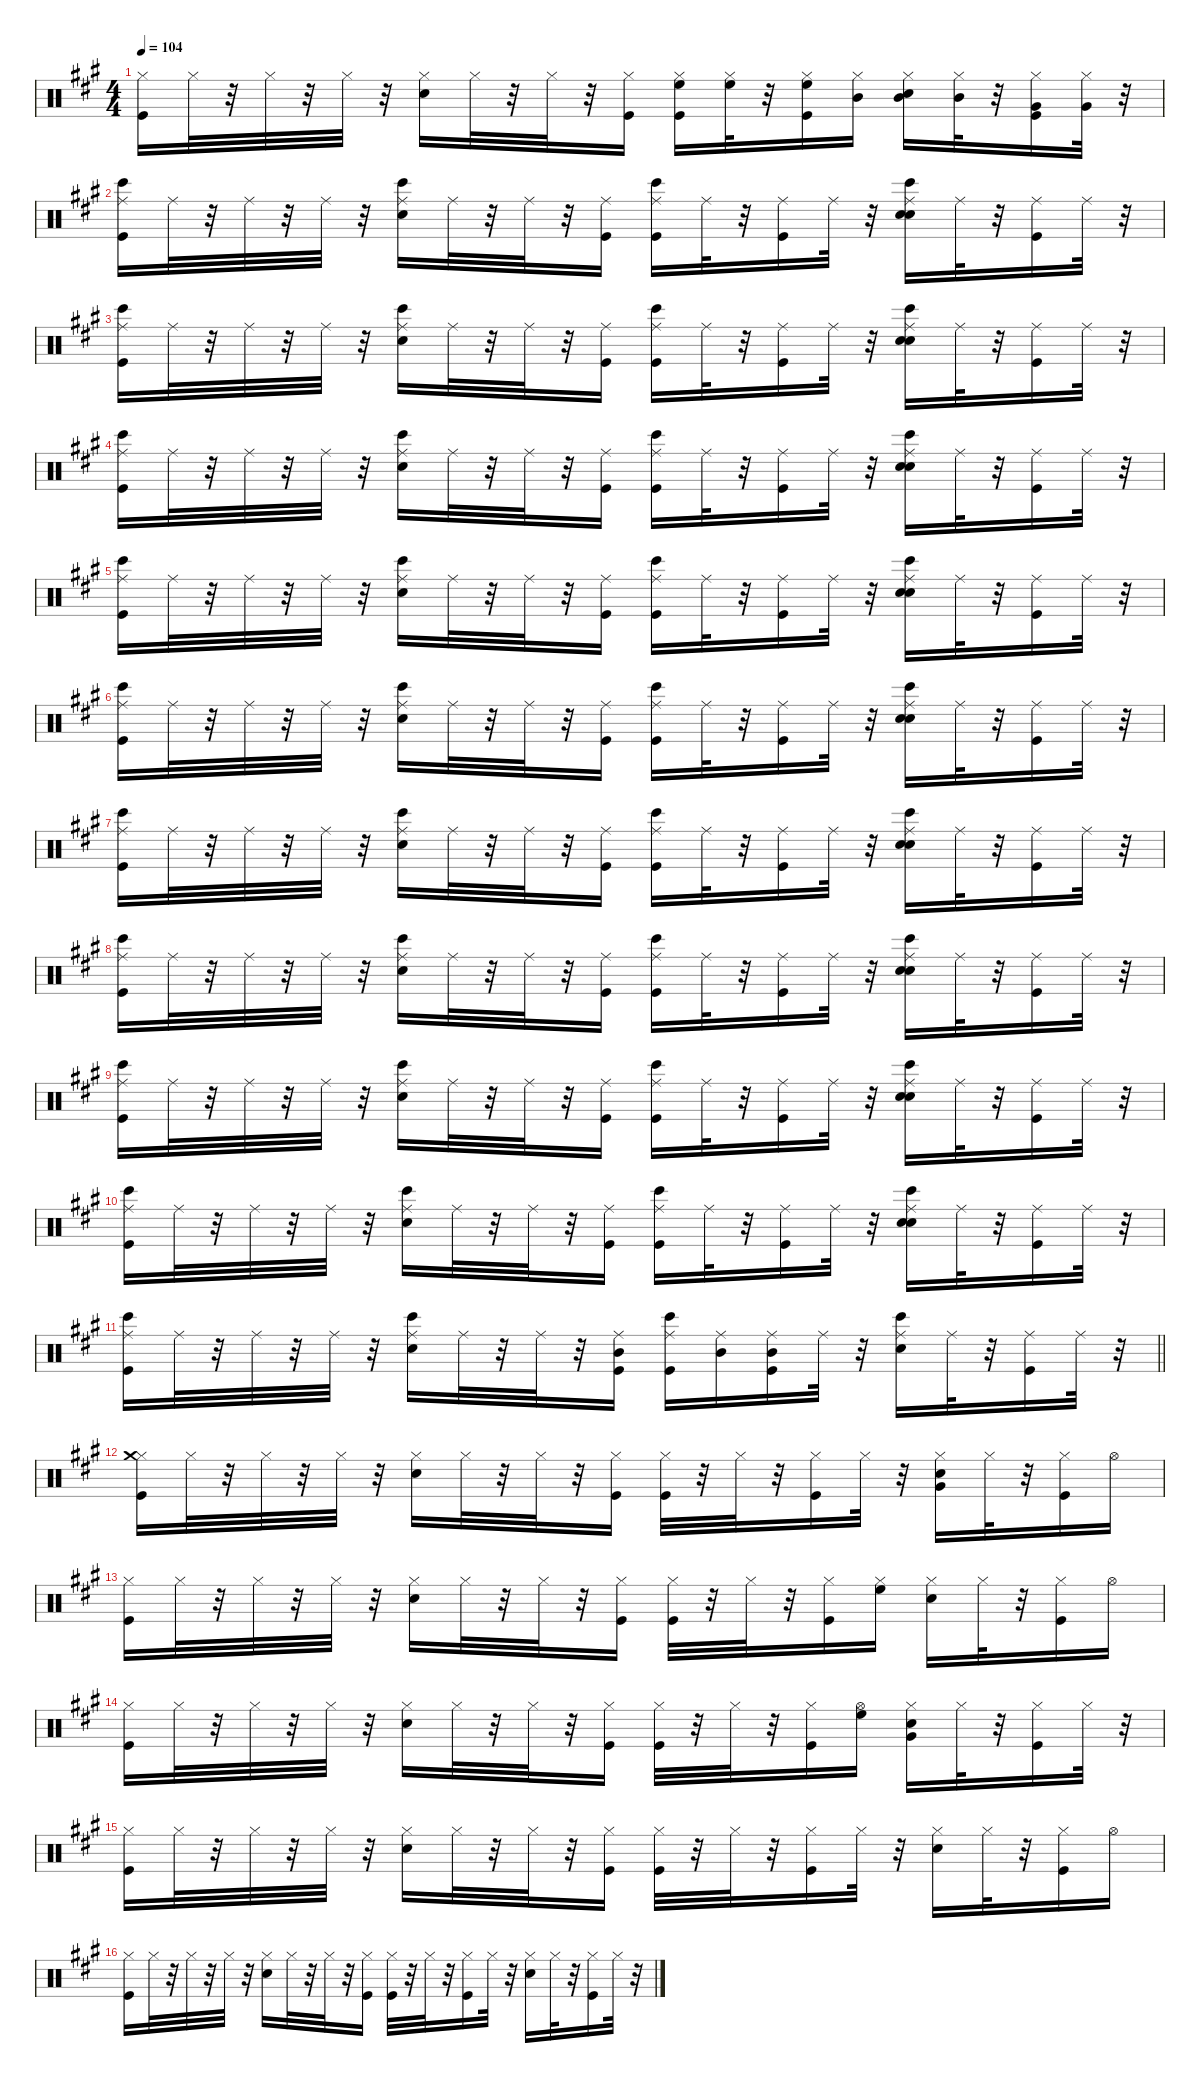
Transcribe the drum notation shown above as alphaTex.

\defaultSystemsLayout 4
\hideDynamics
\bracketExtendMode nobrackets
\singleTrackTrackNamePolicy hidden
\multiTrackTrackNamePolicy hidden
\otherSystemsTrackNameOrientation horizontal
\track ("Drums   " "drm.") {instrument percussion}
\staff {score}
\articulation defaults
\ts (4 4)
\tempo 104
\clef neutral
\ks a
("Kick (hit)"{acc forcenatural} "Hi-Hat (closed)"{acc forcenatural}).16{dy f beam Down} "Hi-Hat (closed)"{acc forcenatural}.32{dy mp beam Down} r.32{beam Down} "Hi-Hat (closed)"{acc forcenatural}.32{dy f beam Down} r.32{beam Down} "Hi-Hat (closed)"{acc forcenatural}.32{beam Down} r.32{beam Down} ("Snare (hit) 2"{acc forcenatural} "Hi-Hat (closed)"{acc forcenatural}).16{dy fff beam Down} "Hi-Hat (closed)"{acc forcenatural}.32{dy mp beam Down} r.32{beam Down} "Hi-Hat (closed)"{acc forcenatural}.32{dy f beam Down} r.32{beam Down} ("Kick (hit)"{acc forcenatural} "Hi-Hat (closed)"{acc forcenatural}).16{dy mf beam Down} ("Kick (hit)"{acc forcenatural} "Hi-Hat (closed)"{acc forcenatural} "High Floor Tom (hit)"{acc forcenatural}).16{dy f beam Down} ("Hi-Hat (closed)"{acc forcenatural} "High Floor Tom (hit)"{acc forcenatural}).32{dy mp beam Down} r.32{beam Down} ("Kick (hit)"{acc forcenatural} "Hi-Hat (closed)"{acc forcenatural} "High Floor Tom (hit)"{acc forcenatural}).16{dy f beam Down} ("Hi-Hat (closed)"{acc forcenatural} "Mid Tom (hit)"{acc forcenatural}).16{beam Down} ("Snare (hit) 2"{acc forcenatural} "Hi-Hat (closed)"{acc forcenatural} "Mid Tom (hit)"{acc forcenatural}).16{dy fff beam Down} ("Hi-Hat (closed)"{acc forcenatural} "Mid Tom (hit)"{acc forcenatural}).32{dy mp beam Down} r.32{beam Down} ("Kick (hit)"{acc forcenatural} "Hi-Hat (closed)"{acc forcenatural} "Very Low Tom (hit)"{acc forcenatural}).16{dy f beam Down} ("Hi-Hat (closed)"{acc forcenatural} "Very Low Tom (hit)"{acc forcenatural}).32{beam Down} r.32{beam Down} |
("Kick (hit)"{acc forcenatural} "Ride (middle)"{acc forcenatural} "Bongo High (hit)"{acc forcenatural}).16{beam Down} "Ride (middle)"{acc forcenatural}.32{dy mp beam Down} r.32{beam Down} "Ride (middle)"{acc forcenatural}.32{beam Down} r.32{beam Down} "Ride (middle)"{acc forcenatural}.32{beam Down} r.32{beam Down} ("Snare (hit) 2"{acc forcenatural} "Ride (middle)"{acc forcenatural} "Bongo High (hit)"{acc forcenatural}).16{dy fff beam Down} "Ride (middle)"{acc forcenatural}.32{dy mp beam Down} r.32{beam Down} "Ride (middle)"{acc forcenatural}.32{beam Down} r.32{beam Down} ("Kick (hit)"{acc forcenatural} "Ride (middle)"{acc forcenatural}).16{dy mf beam Down} ("Kick (hit)"{acc forcenatural} "Ride (middle)"{acc forcenatural} "Bongo High (hit)"{acc forcenatural}).16{dy f beam Down} "Ride (middle)"{acc forcenatural}.32{dy mp beam Down} r.32{beam Down} ("Kick (hit)"{acc forcenatural} "Ride (middle)"{acc forcenatural}).16{dy f beam Down} "Ride (middle)"{acc forcenatural}.32{dy mp beam Down} r.32{beam Down} ("Hand Clap (hit)"{acc forcenatural} "Snare (hit) 2"{acc forcenatural} "Ride (middle)"{acc forcenatural} "Bongo High (hit)"{acc forcenatural}).16{dy f beam Down} "Ride (middle)"{acc forcenatural}.32{dy mp beam Down} r.32{beam Down} ("Kick (hit)"{acc forcenatural} "Ride (middle)"{acc forcenatural}).16{dy f beam Down} "Ride (middle)"{acc forcenatural}.32{dy mp beam Down} r.32{beam Down} |
("Kick (hit)"{acc forcenatural} "Ride (middle)"{acc forcenatural} "Bongo High (hit)"{acc forcenatural}).16{dy f beam Down} "Ride (middle)"{acc forcenatural}.32{dy mp beam Down} r.32{beam Down} "Ride (middle)"{acc forcenatural}.32{beam Down} r.32{beam Down} "Ride (middle)"{acc forcenatural}.32{beam Down} r.32{beam Down} ("Snare (hit) 2"{acc forcenatural} "Ride (middle)"{acc forcenatural} "Bongo High (hit)"{acc forcenatural}).16{dy fff beam Down} "Ride (middle)"{acc forcenatural}.32{dy mp beam Down} r.32{beam Down} "Ride (middle)"{acc forcenatural}.32{beam Down} r.32{beam Down} ("Kick (hit)"{acc forcenatural} "Ride (middle)"{acc forcenatural}).16{dy mf beam Down} ("Kick (hit)"{acc forcenatural} "Ride (middle)"{acc forcenatural} "Bongo High (hit)"{acc forcenatural}).16{dy f beam Down} "Ride (middle)"{acc forcenatural}.32{dy mp beam Down} r.32{beam Down} ("Kick (hit)"{acc forcenatural} "Ride (middle)"{acc forcenatural}).16{dy f beam Down} "Ride (middle)"{acc forcenatural}.32{dy mp beam Down} r.32{beam Down} ("Hand Clap (hit)"{acc forcenatural} "Snare (hit) 2"{acc forcenatural} "Ride (middle)"{acc forcenatural} "Bongo High (hit)"{acc forcenatural}).16{dy f beam Down} "Ride (middle)"{acc forcenatural}.32{dy mp beam Down} r.32{beam Down} ("Kick (hit)"{acc forcenatural} "Ride (middle)"{acc forcenatural}).16{dy f beam Down} "Ride (middle)"{acc forcenatural}.32{dy mp beam Down} r.32{beam Down} |
("Kick (hit)"{acc forcenatural} "Ride (middle)"{acc forcenatural} "Bongo High (hit)"{acc forcenatural}).16{dy f beam Down} "Ride (middle)"{acc forcenatural}.32{dy mp beam Down} r.32{beam Down} "Ride (middle)"{acc forcenatural}.32{beam Down} r.32{beam Down} "Ride (middle)"{acc forcenatural}.32{beam Down} r.32{beam Down} ("Snare (hit) 2"{acc forcenatural} "Ride (middle)"{acc forcenatural} "Bongo High (hit)"{acc forcenatural}).16{dy fff beam Down} "Ride (middle)"{acc forcenatural}.32{dy mp beam Down} r.32{beam Down} "Ride (middle)"{acc forcenatural}.32{beam Down} r.32{beam Down} ("Kick (hit)"{acc forcenatural} "Ride (middle)"{acc forcenatural}).16{dy mf beam Down} ("Kick (hit)"{acc forcenatural} "Ride (middle)"{acc forcenatural} "Bongo High (hit)"{acc forcenatural}).16{dy f beam Down} "Ride (middle)"{acc forcenatural}.32{dy mp beam Down} r.32{beam Down} ("Kick (hit)"{acc forcenatural} "Ride (middle)"{acc forcenatural}).16{dy f beam Down} "Ride (middle)"{acc forcenatural}.32{dy mp beam Down} r.32{beam Down} ("Hand Clap (hit)"{acc forcenatural} "Snare (hit) 2"{acc forcenatural} "Ride (middle)"{acc forcenatural} "Bongo High (hit)"{acc forcenatural}).16{dy f beam Down} "Ride (middle)"{acc forcenatural}.32{dy mp beam Down} r.32{beam Down} ("Kick (hit)"{acc forcenatural} "Ride (middle)"{acc forcenatural}).16{dy f beam Down} "Ride (middle)"{acc forcenatural}.32{dy mp beam Down} r.32{beam Down} |
("Kick (hit)"{acc forcenatural} "Ride (middle)"{acc forcenatural} "Bongo High (hit)"{acc forcenatural}).16{dy f beam Down} "Ride (middle)"{acc forcenatural}.32{dy mp beam Down} r.32{beam Down} "Ride (middle)"{acc forcenatural}.32{beam Down} r.32{beam Down} "Ride (middle)"{acc forcenatural}.32{beam Down} r.32{beam Down} ("Snare (hit) 2"{acc forcenatural} "Ride (middle)"{acc forcenatural} "Bongo High (hit)"{acc forcenatural}).16{dy fff beam Down} "Ride (middle)"{acc forcenatural}.32{dy mp beam Down} r.32{beam Down} "Ride (middle)"{acc forcenatural}.32{beam Down} r.32{beam Down} ("Kick (hit)"{acc forcenatural} "Ride (middle)"{acc forcenatural}).16{dy mf beam Down} ("Kick (hit)"{acc forcenatural} "Ride (middle)"{acc forcenatural} "Bongo High (hit)"{acc forcenatural}).16{dy f beam Down} "Ride (middle)"{acc forcenatural}.32{dy mp beam Down} r.32{beam Down} ("Kick (hit)"{acc forcenatural} "Ride (middle)"{acc forcenatural}).16{dy f beam Down} "Ride (middle)"{acc forcenatural}.32{dy mp beam Down} r.32{beam Down} ("Hand Clap (hit)"{acc forcenatural} "Snare (hit) 2"{acc forcenatural} "Ride (middle)"{acc forcenatural} "Bongo High (hit)"{acc forcenatural}).16{dy f beam Down} "Ride (middle)"{acc forcenatural}.32{dy mp beam Down} r.32{beam Down} ("Kick (hit)"{acc forcenatural} "Ride (middle)"{acc forcenatural}).16{dy f beam Down} "Ride (middle)"{acc forcenatural}.32{dy mp beam Down} r.32{beam Down} |
("Kick (hit)"{acc forcenatural} "Ride (middle)"{acc forcenatural} "Bongo High (hit)"{acc forcenatural}).16{dy f beam Down} "Ride (middle)"{acc forcenatural}.32{dy mp beam Down} r.32{beam Down} "Ride (middle)"{acc forcenatural}.32{beam Down} r.32{beam Down} "Ride (middle)"{acc forcenatural}.32{beam Down} r.32{beam Down} ("Snare (hit) 2"{acc forcenatural} "Ride (middle)"{acc forcenatural} "Bongo High (hit)"{acc forcenatural}).16{dy fff beam Down} "Ride (middle)"{acc forcenatural}.32{dy mp beam Down} r.32{beam Down} "Ride (middle)"{acc forcenatural}.32{beam Down} r.32{beam Down} ("Kick (hit)"{acc forcenatural} "Ride (middle)"{acc forcenatural}).16{dy mf beam Down} ("Kick (hit)"{acc forcenatural} "Ride (middle)"{acc forcenatural} "Bongo High (hit)"{acc forcenatural}).16{dy f beam Down} "Ride (middle)"{acc forcenatural}.32{dy mp beam Down} r.32{beam Down} ("Kick (hit)"{acc forcenatural} "Ride (middle)"{acc forcenatural}).16{dy f beam Down} "Ride (middle)"{acc forcenatural}.32{dy mp beam Down} r.32{beam Down} ("Hand Clap (hit)"{acc forcenatural} "Snare (hit) 2"{acc forcenatural} "Ride (middle)"{acc forcenatural} "Bongo High (hit)"{acc forcenatural}).16{dy f beam Down} "Ride (middle)"{acc forcenatural}.32{dy mp beam Down} r.32{beam Down} ("Kick (hit)"{acc forcenatural} "Ride (middle)"{acc forcenatural}).16{dy f beam Down} "Ride (middle)"{acc forcenatural}.32{dy mp beam Down} r.32{beam Down} |
("Kick (hit)"{acc forcenatural} "Ride (middle)"{acc forcenatural} "Bongo High (hit)"{acc forcenatural}).16{dy f beam Down} "Ride (middle)"{acc forcenatural}.32{dy mp beam Down} r.32{beam Down} "Ride (middle)"{acc forcenatural}.32{beam Down} r.32{beam Down} "Ride (middle)"{acc forcenatural}.32{beam Down} r.32{beam Down} ("Snare (hit) 2"{acc forcenatural} "Ride (middle)"{acc forcenatural} "Bongo High (hit)"{acc forcenatural}).16{dy fff beam Down} "Ride (middle)"{acc forcenatural}.32{dy mp beam Down} r.32{beam Down} "Ride (middle)"{acc forcenatural}.32{beam Down} r.32{beam Down} ("Kick (hit)"{acc forcenatural} "Ride (middle)"{acc forcenatural}).16{dy mf beam Down} ("Kick (hit)"{acc forcenatural} "Ride (middle)"{acc forcenatural} "Bongo High (hit)"{acc forcenatural}).16{dy f beam Down} "Ride (middle)"{acc forcenatural}.32{dy mp beam Down} r.32{beam Down} ("Kick (hit)"{acc forcenatural} "Ride (middle)"{acc forcenatural}).16{dy f beam Down} "Ride (middle)"{acc forcenatural}.32{dy mp beam Down} r.32{beam Down} ("Hand Clap (hit)"{acc forcenatural} "Snare (hit) 2"{acc forcenatural} "Ride (middle)"{acc forcenatural} "Bongo High (hit)"{acc forcenatural}).16{dy f beam Down} "Ride (middle)"{acc forcenatural}.32{dy mp beam Down} r.32{beam Down} ("Kick (hit)"{acc forcenatural} "Ride (middle)"{acc forcenatural}).16{dy f beam Down} "Ride (middle)"{acc forcenatural}.32{dy mp beam Down} r.32{beam Down} |
("Kick (hit)"{acc forcenatural} "Ride (middle)"{acc forcenatural} "Bongo High (hit)"{acc forcenatural}).16{dy f beam Down} "Ride (middle)"{acc forcenatural}.32{dy mp beam Down} r.32{beam Down} "Ride (middle)"{acc forcenatural}.32{beam Down} r.32{beam Down} "Ride (middle)"{acc forcenatural}.32{beam Down} r.32{beam Down} ("Snare (hit) 2"{acc forcenatural} "Ride (middle)"{acc forcenatural} "Bongo High (hit)"{acc forcenatural}).16{dy fff beam Down} "Ride (middle)"{acc forcenatural}.32{dy mp beam Down} r.32{beam Down} "Ride (middle)"{acc forcenatural}.32{beam Down} r.32{beam Down} ("Kick (hit)"{acc forcenatural} "Ride (middle)"{acc forcenatural}).16{dy mf beam Down} ("Kick (hit)"{acc forcenatural} "Ride (middle)"{acc forcenatural} "Bongo High (hit)"{acc forcenatural}).16{dy f beam Down} "Ride (middle)"{acc forcenatural}.32{dy mp beam Down} r.32{beam Down} ("Kick (hit)"{acc forcenatural} "Ride (middle)"{acc forcenatural}).16{dy f beam Down} "Ride (middle)"{acc forcenatural}.32{dy mp beam Down} r.32{beam Down} ("Hand Clap (hit)"{acc forcenatural} "Snare (hit) 2"{acc forcenatural} "Ride (middle)"{acc forcenatural} "Bongo High (hit)"{acc forcenatural}).16{dy f beam Down} "Ride (middle)"{acc forcenatural}.32{dy mp beam Down} r.32{beam Down} ("Kick (hit)"{acc forcenatural} "Ride (middle)"{acc forcenatural}).16{dy f beam Down} "Ride (middle)"{acc forcenatural}.32{dy mp beam Down} r.32{beam Down} |
("Kick (hit)"{acc forcenatural} "Ride (middle)"{acc forcenatural} "Bongo High (hit)"{acc forcenatural}).16{dy f beam Down} "Ride (middle)"{acc forcenatural}.32{dy mp beam Down} r.32{beam Down} "Ride (middle)"{acc forcenatural}.32{beam Down} r.32{beam Down} "Ride (middle)"{acc forcenatural}.32{beam Down} r.32{beam Down} ("Snare (hit) 2"{acc forcenatural} "Ride (middle)"{acc forcenatural} "Bongo High (hit)"{acc forcenatural}).16{dy fff beam Down} "Ride (middle)"{acc forcenatural}.32{dy mp beam Down} r.32{beam Down} "Ride (middle)"{acc forcenatural}.32{beam Down} r.32{beam Down} ("Kick (hit)"{acc forcenatural} "Ride (middle)"{acc forcenatural}).16{dy mf beam Down} ("Kick (hit)"{acc forcenatural} "Ride (middle)"{acc forcenatural} "Bongo High (hit)"{acc forcenatural}).16{dy f beam Down} "Ride (middle)"{acc forcenatural}.32{dy mp beam Down} r.32{beam Down} ("Kick (hit)"{acc forcenatural} "Ride (middle)"{acc forcenatural}).16{dy f beam Down} "Ride (middle)"{acc forcenatural}.32{dy mp beam Down} r.32{beam Down} ("Hand Clap (hit)"{acc forcenatural} "Snare (hit) 2"{acc forcenatural} "Ride (middle)"{acc forcenatural} "Bongo High (hit)"{acc forcenatural}).16{dy f beam Down} "Ride (middle)"{acc forcenatural}.32{dy mp beam Down} r.32{beam Down} ("Kick (hit)"{acc forcenatural} "Ride (middle)"{acc forcenatural}).16{dy f beam Down} "Ride (middle)"{acc forcenatural}.32{dy mp beam Down} r.32{beam Down} |
("Kick (hit)"{acc forcenatural} "Ride (middle)"{acc forcenatural} "Bongo High (hit)"{acc forcenatural}).16{dy f beam Down} "Ride (middle)"{acc forcenatural}.32{dy mp beam Down} r.32{beam Down} "Ride (middle)"{acc forcenatural}.32{beam Down} r.32{beam Down} "Ride (middle)"{acc forcenatural}.32{beam Down} r.32{beam Down} ("Snare (hit) 2"{acc forcenatural} "Ride (middle)"{acc forcenatural} "Bongo High (hit)"{acc forcenatural}).16{dy fff beam Down} "Ride (middle)"{acc forcenatural}.32{dy mp beam Down} r.32{beam Down} "Ride (middle)"{acc forcenatural}.32{beam Down} r.32{beam Down} ("Kick (hit)"{acc forcenatural} "Ride (middle)"{acc forcenatural}).16{dy mf beam Down} ("Kick (hit)"{acc forcenatural} "Ride (middle)"{acc forcenatural} "Bongo High (hit)"{acc forcenatural}).16{dy f beam Down} "Ride (middle)"{acc forcenatural}.32{dy mp beam Down} r.32{beam Down} ("Kick (hit)"{acc forcenatural} "Ride (middle)"{acc forcenatural}).16{dy f beam Down} "Ride (middle)"{acc forcenatural}.32{dy mp beam Down} r.32{beam Down} ("Hand Clap (hit)"{acc forcenatural} "Snare (hit) 2"{acc forcenatural} "Ride (middle)"{acc forcenatural} "Bongo High (hit)"{acc forcenatural}).16{dy f beam Down} "Ride (middle)"{acc forcenatural}.32{dy mp beam Down} r.32{beam Down} ("Kick (hit)"{acc forcenatural} "Ride (middle)"{acc forcenatural}).16{dy f beam Down} "Ride (middle)"{acc forcenatural}.32{dy mp beam Down} r.32{beam Down} |
\barLineRight lightlight
("Kick (hit)"{acc forcenatural} "Ride (middle)"{acc forcenatural} "Bongo High (hit)"{acc forcenatural}).16{dy f beam Down} "Ride (middle)"{acc forcenatural}.32{dy mp beam Down} r.32{beam Down} "Ride (middle)"{acc forcenatural}.32{beam Down} r.32{beam Down} "Ride (middle)"{acc forcenatural}.32{beam Down} r.32{beam Down} ("Snare (hit) 2"{acc forcenatural} "Ride (middle)"{acc forcenatural} "Bongo High (hit)"{acc forcenatural}).16{dy fff beam Down} "Ride (middle)"{acc forcenatural}.32{dy mp beam Down} r.32{beam Down} "Ride (middle)"{acc forcenatural}.32{beam Down} r.32{beam Down} ("Kick (hit)"{acc forcenatural} "Mid Tom (hit)"{acc forcenatural} "Ride (middle)"{acc forcenatural}).16{dy mf beam Down} ("Kick (hit)"{acc forcenatural} "Ride (middle)"{acc forcenatural} "Bongo High (hit)"{acc forcenatural}).16{dy f beam Down} ("Mid Tom (hit)"{acc forcenatural} "Ride (middle)"{acc forcenatural}).16{beam Down} ("Kick (hit)"{acc forcenatural} "Mid Tom (hit)"{acc forcenatural} "Ride (middle)"{acc forcenatural}).16{beam Down} "Ride (middle)"{acc forcenatural}.32{dy mp beam Down} r.32{beam Down} ("Snare (hit) 2"{acc forcenatural} "Ride (middle)"{acc forcenatural} "Bongo High (hit)"{acc forcenatural}).16{dy fff beam Down} "Ride (middle)"{acc forcenatural}.32{dy mp beam Down} r.32{beam Down} ("Kick (hit)"{acc forcenatural} "Ride (middle)"{acc forcenatural}).16{dy f beam Down} "Ride (middle)"{acc forcenatural}.32{dy mp beam Down} r.32{beam Down} |
("Kick (hit)"{acc forcenatural} "Hi-Hat (closed)"{acc forcenatural} "Crash medium (hit)"{acc forcenatural}).16{dy f beam Down} "Hi-Hat (closed)"{acc forcenatural}.32{dy mp beam Down} r.32{beam Down} "Hi-Hat (closed)"{acc forcenatural}.32{dy f beam Down} r.32{beam Down} "Hi-Hat (closed)"{acc forcenatural}.32{beam Down} r.32{beam Down} ("Snare (hit) 2"{acc forcenatural} "Hi-Hat (closed)"{acc forcenatural}).16{dy fff beam Down} "Hi-Hat (closed)"{acc forcenatural}.32{dy mp beam Down} r.32{beam Down} "Hi-Hat (closed)"{acc forcenatural}.32{dy f beam Down} r.32{beam Down} ("Kick (hit)"{acc forcenatural} "Hi-Hat (closed)"{acc forcenatural}).16{dy mf beam Down} ("Kick (hit)"{acc forcenatural} "Hi-Hat (closed)"{acc forcenatural}).32{dy f beam Down} r.32{beam Down} "Hi-Hat (closed)"{acc forcenatural}.32{dy mp beam Down} r.32{beam Down} ("Kick (hit)"{acc forcenatural} "Hi-Hat (closed)"{acc forcenatural}).16{dy f beam Down} "Hi-Hat (closed)"{acc forcenatural}.32{beam Down} r.32{beam Down} ("Snare (hit) 2"{acc forcenatural} "Hi-Hat (closed)"{acc forcenatural} "Very Low Tom (hit)"{acc forcenatural}).16{dy fff beam Down} "Hi-Hat (closed)"{acc forcenatural}.32{dy mp beam Down} r.32{beam Down} ("Kick (hit)"{acc forcenatural} "Hi-Hat (closed)"{acc forcenatural}).16{dy f beam Down} "Hi-Hat (open)"{acc forcenatural}.16{beam Down} |
("Kick (hit)"{acc forcenatural} "Hi-Hat (closed)"{acc forcenatural}).16{beam Down} "Hi-Hat (closed)"{acc forcenatural}.32{dy mp beam Down} r.32{beam Down} "Hi-Hat (closed)"{acc forcenatural}.32{dy f beam Down} r.32{beam Down} "Hi-Hat (closed)"{acc forcenatural}.32{beam Down} r.32{beam Down} ("Snare (hit) 2"{acc forcenatural} "Hi-Hat (closed)"{acc forcenatural}).16{dy fff beam Down} "Hi-Hat (closed)"{acc forcenatural}.32{dy mp beam Down} r.32{beam Down} "Hi-Hat (closed)"{acc forcenatural}.32{dy f beam Down} r.32{beam Down} ("Kick (hit)"{acc forcenatural} "Hi-Hat (closed)"{acc forcenatural}).16{dy mf beam Down} ("Kick (hit)"{acc forcenatural} "Hi-Hat (closed)"{acc forcenatural}).32{dy f beam Down} r.32{beam Down} "Hi-Hat (closed)"{acc forcenatural}.32{dy mp beam Down} r.32{beam Down} ("Kick (hit)"{acc forcenatural} "Hi-Hat (closed)"{acc forcenatural}).16{dy f beam Down} ("Hi-Hat (closed)"{acc forcenatural} "High Floor Tom (hit)"{acc forcenatural}).16{beam Down} ("Snare (hit) 2"{acc forcenatural} "Hi-Hat (closed)"{acc forcenatural}).16{dy fff beam Down} "Hi-Hat (closed)"{acc forcenatural}.32{dy mp beam Down} r.32{beam Down} ("Kick (hit)"{acc forcenatural} "Hi-Hat (closed)"{acc forcenatural}).16{dy f beam Down} "Hi-Hat (open)"{acc forcenatural}.16{beam Down} |
("Kick (hit)"{acc forcenatural} "Hi-Hat (closed)"{acc forcenatural}).16{beam Down} "Hi-Hat (closed)"{acc forcenatural}.32{dy mp beam Down} r.32{beam Down} "Hi-Hat (closed)"{acc forcenatural}.32{dy f beam Down} r.32{beam Down} "Hi-Hat (closed)"{acc forcenatural}.32{beam Down} r.32{beam Down} ("Snare (hit) 2"{acc forcenatural} "Hi-Hat (closed)"{acc forcenatural}).16{dy fff beam Down} "Hi-Hat (closed)"{acc forcenatural}.32{dy mp beam Down} r.32{beam Down} "Hi-Hat (closed)"{acc forcenatural}.32{dy f beam Down} r.32{beam Down} ("Kick (hit)"{acc forcenatural} "Hi-Hat (closed)"{acc forcenatural}).16{dy mf beam Down} ("Kick (hit)"{acc forcenatural} "Hi-Hat (closed)"{acc forcenatural}).32{dy f beam Down} r.32{beam Down} "Hi-Hat (closed)"{acc forcenatural}.32{dy mp beam Down} r.32{beam Down} ("Kick (hit)"{acc forcenatural} "Hi-Hat (closed)"{acc forcenatural}).16{dy f beam Down} ("Hi-Hat (open)"{acc forcenatural} "High Floor Tom (hit)"{acc forcenatural}).16{beam Down} ("Snare (hit) 2"{acc forcenatural} "Hi-Hat (closed)"{acc forcenatural} "Very Low Tom (hit)"{acc forcenatural}).16{dy fff beam Down} "Hi-Hat (closed)"{acc forcenatural}.32{dy mp beam Down} r.32{beam Down} ("Kick (hit)"{acc forcenatural} "Hi-Hat (closed)"{acc forcenatural}).16{dy f beam Down} "Hi-Hat (closed)"{acc forcenatural}.32{beam Down} r.32{beam Down} |
("Kick (hit)"{acc forcenatural} "Hi-Hat (closed)"{acc forcenatural}).16{beam Down} "Hi-Hat (closed)"{acc forcenatural}.32{dy mp beam Down} r.32{beam Down} "Hi-Hat (closed)"{acc forcenatural}.32{dy f beam Down} r.32{beam Down} "Hi-Hat (closed)"{acc forcenatural}.32{beam Down} r.32{beam Down} ("Snare (hit) 2"{acc forcenatural} "Hi-Hat (closed)"{acc forcenatural}).16{dy fff beam Down} "Hi-Hat (closed)"{acc forcenatural}.32{dy mp beam Down} r.32{beam Down} "Hi-Hat (closed)"{acc forcenatural}.32{dy f beam Down} r.32{beam Down} ("Kick (hit)"{acc forcenatural} "Hi-Hat (closed)"{acc forcenatural}).16{dy mf beam Down} ("Kick (hit)"{acc forcenatural} "Hi-Hat (closed)"{acc forcenatural}).32{dy f beam Down} r.32{beam Down} "Hi-Hat (closed)"{acc forcenatural}.32{dy mp beam Down} r.32{beam Down} ("Kick (hit)"{acc forcenatural} "Hi-Hat (closed)"{acc forcenatural}).16{dy f beam Down} "Hi-Hat (closed)"{acc forcenatural}.32{beam Down} r.32{beam Down} ("Snare (hit) 2"{acc forcenatural} "Hi-Hat (closed)"{acc forcenatural}).16{dy fff beam Down} "Hi-Hat (closed)"{acc forcenatural}.32{dy mp beam Down} r.32{beam Down} ("Kick (hit)"{acc forcenatural} "Hi-Hat (closed)"{acc forcenatural}).16{dy f beam Down} "Hi-Hat (open)"{acc forcenatural}.16{beam Down} |
("Kick (hit)"{acc forcenatural} "Hi-Hat (closed)"{acc forcenatural}).16{beam Down} "Hi-Hat (closed)"{acc forcenatural}.32{dy mp beam Down} r.32{beam Down} "Hi-Hat (closed)"{acc forcenatural}.32{dy f beam Down} r.32{beam Down} "Hi-Hat (closed)"{acc forcenatural}.32{beam Down} r.32{beam Down} ("Snare (hit) 2"{acc forcenatural} "Hi-Hat (closed)"{acc forcenatural}).16{dy fff beam Down} "Hi-Hat (closed)"{acc forcenatural}.32{dy mp beam Down} r.32{beam Down} "Hi-Hat (closed)"{acc forcenatural}.32{dy f beam Down} r.32{beam Down} ("Kick (hit)"{acc forcenatural} "Hi-Hat (closed)"{acc forcenatural}).16{dy mf beam Down} ("Kick (hit)"{acc forcenatural} "Hi-Hat (closed)"{acc forcenatural}).32{dy f beam Down} r.32{beam Down} "Hi-Hat (closed)"{acc forcenatural}.32{dy mp beam Down} r.32{beam Down} ("Kick (hit)"{acc forcenatural} "Hi-Hat (closed)"{acc forcenatural}).16{dy f beam Down} "Hi-Hat (closed)"{acc forcenatural}.32{beam Down} r.32{beam Down} ("Snare (hit) 2"{acc forcenatural} "Hi-Hat (closed)"{acc forcenatural}).16{dy fff beam Down} "Hi-Hat (closed)"{acc forcenatural}.32{dy mp beam Down} r.32{beam Down} ("Kick (hit)"{acc forcenatural} "Hi-Hat (closed)"{acc forcenatural}).16{dy f beam Down} "Hi-Hat (closed)"{acc forcenatural}.32{beam Down} r.32{beam Down}
